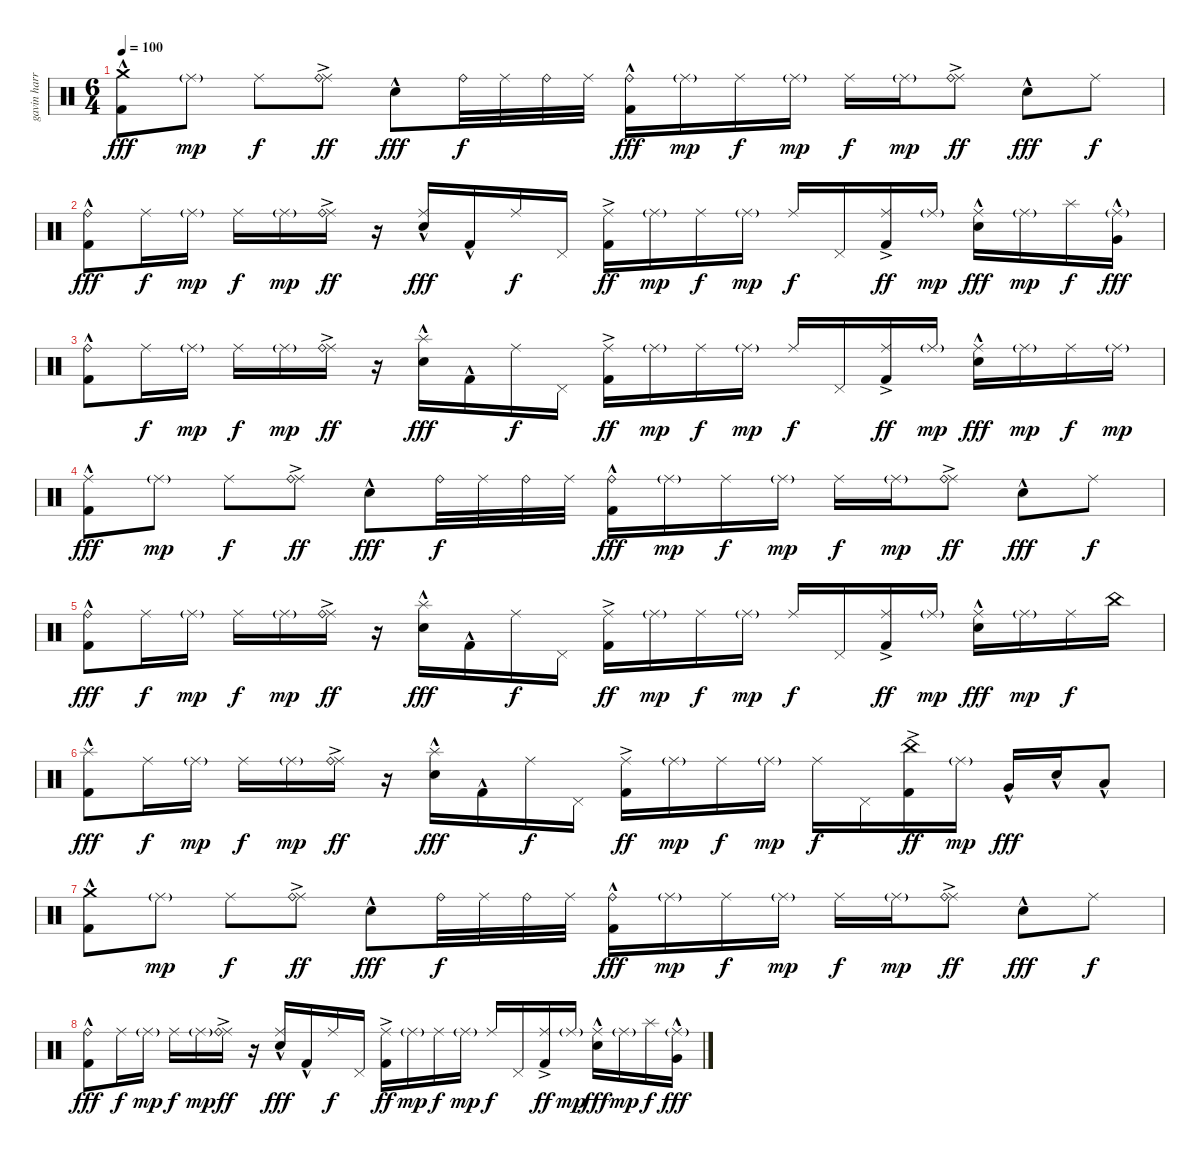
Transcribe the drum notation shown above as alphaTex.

\track ("gavin harrison" "gavin harr") {instrument percussion}
\staff {score}
\articulation defaults
\ts (6 4)
\tempo 100
\clef neutral
\ks c
("Crash medium (hit)" "Kick (hit) 2"{hac}).8{dy fff} "Ride (middle)"{g}.8{dy mp} "Ride (middle)".8{dy f} ("Ride (middle)"{ac} "Ride (bell)").8{dy ff} "Electric Snare (hit)"{hac}.8{dy fff} "Ride (bell)".32{dy f} "Ride (middle)".32 "Ride (bell)".32 "Ride (middle)".32 ("Ride (bell)" "Kick (hit) 2"{hac}).16{dy fff} "Ride (middle)"{g}.16{dy mp} "Ride (middle)".16{dy f} "Ride (middle)"{g}.16{dy mp} "Ride (middle)".16{dy f} "Ride (middle)"{g}.16{dy mp} ("Ride (middle)" "Ride (bell)"{ac}).8{dy ff} "Electric Snare (hit)"{hac}.8{dy fff} "Ride (middle)".8{dy f} |
("Ride (bell)" "Kick (hit) 2"{hac}).8{dy fff} "Ride (middle)".16{dy f} "Ride (middle)"{g}.16{dy mp} "Ride (middle)".16{dy f} "Ride (middle)"{g}.16{dy mp} ("Ride (middle)"{ac} "Ride (bell)").16{dy ff} r.16 ("Ride (middle)" "Electric Snare (hit)"{hac}).16{dy fff} "Kick (hit) 2"{hac}.16 "Ride (middle)".16{dy f} "Pedal Hi-Hat (hit)".16 ("Ride (middle)" "Kick (hit) 2"{ac}).16{dy ff} "Ride (middle)"{g}.16{dy mp} "Ride (middle)".16{dy f} "Ride (middle)"{g}.16{dy mp} "Ride (middle)".16{dy f} "Pedal Hi-Hat (hit)".16 ("Ride (middle)" "Kick (hit) 2"{ac}).16{dy ff} "Ride (middle)"{g}.16{dy mp} ("Ride (middle)" "Electric Snare (hit)"{hac}).16{dy fff} "Ride (middle)"{g}.16{dy mp} "Splash (hit)".16{dy f} ("Ride (middle)"{g} "Very Low Tom (hit)"{hac}).16{dy fff} |
("Ride (bell)" "Kick (hit) 2"{hac}).8 "Ride (middle)".16{dy f} "Ride (middle)"{g}.16{dy mp} "Ride (middle)".16{dy f} "Ride (middle)"{g}.16{dy mp} ("Ride (middle)"{ac} "Ride (bell)").16{dy ff} r.16 ("Splash (hit)" "Electric Snare (hit)"{hac}).16{dy fff} "Kick (hit) 2"{hac}.16 "Ride (middle)".16{dy f} "Pedal Hi-Hat (hit)".16 ("Ride (middle)" "Kick (hit) 2"{ac}).16{dy ff} "Ride (middle)"{g}.16{dy mp} "Ride (middle)".16{dy f} "Ride (middle)"{g}.16{dy mp} "Ride (middle)".16{dy f} "Pedal Hi-Hat (hit)".16 ("Ride (middle)" "Kick (hit) 2"{ac}).16{dy ff} "Ride (middle)"{g}.16{dy mp} ("Ride (middle)" "Electric Snare (hit)"{hac}).16{dy fff} "Ride (middle)"{g}.16{dy mp} "Ride (middle)".16{dy f} "Ride (middle)"{g}.16{dy mp} |
("Ride (middle)" "Kick (hit) 2"{hac}).8{dy fff} "Ride (middle)"{g}.8{dy mp} "Ride (middle)".8{dy f} ("Ride (middle)"{ac} "Ride (bell)").8{dy ff} "Electric Snare (hit)"{hac}.8{dy fff} "Ride (bell)".32{dy f} "Ride (middle)".32 "Ride (bell)".32 "Ride (middle)".32 ("Ride (bell)" "Kick (hit) 2"{hac}).16{dy fff} "Ride (middle)"{g}.16{dy mp} "Ride (middle)".16{dy f} "Ride (middle)"{g}.16{dy mp} "Ride (middle)".16{dy f} "Ride (middle)"{g}.16{dy mp} ("Ride (middle)" "Ride (bell)"{ac}).8{dy ff} "Electric Snare (hit)"{hac}.8{dy fff} "Ride (middle)".8{dy f} |
("Ride (bell)" "Kick (hit) 2"{hac}).8{dy fff} "Ride (middle)".16{dy f} "Ride (middle)"{g}.16{dy mp} "Ride (middle)".16{dy f} "Ride (middle)"{g}.16{dy mp} ("Ride (middle)"{ac} "Ride (bell)").16{dy ff} r.16 ("Splash (hit)" "Electric Snare (hit)"{hac}).16{dy fff} "Kick (hit) 2"{hac}.16 "Ride (middle)".16{dy f} "Pedal Hi-Hat (hit)".16 ("Ride (middle)" "Kick (hit) 2"{ac}).16{dy ff} "Ride (middle)"{g}.16{dy mp} "Ride (middle)".16{dy f} "Ride (middle)"{g}.16{dy mp} "Ride (middle)".16{dy f} "Pedal Hi-Hat (hit)".16 ("Ride (middle)" "Kick (hit) 2"{ac}).16{dy ff} "Ride (middle)"{g}.16{dy mp} ("Ride (middle)" "Electric Snare (hit)"{hac}).16{dy fff} "Ride (middle)"{g}.16{dy mp} "Ride (middle)".16{dy f} "China (hit)".16 |
("Splash (hit)" "Kick (hit) 2"{hac}).8{dy fff} "Ride (middle)".16{dy f} "Ride (middle)"{g}.16{dy mp} "Ride (middle)".16{dy f} "Ride (middle)"{g}.16{dy mp} ("Ride (middle)"{ac} "Ride (bell)").16{dy ff} r.16 ("Splash (hit)" "Electric Snare (hit)"{hac}).16{dy fff} "Kick (hit) 2"{hac}.16 "Ride (middle)".16{dy f} "Pedal Hi-Hat (hit)".16 ("Ride (middle)" "Kick (hit) 2"{ac}).16{dy ff} "Ride (middle)"{g}.16{dy mp} "Ride (middle)".16{dy f} "Ride (middle)"{g}.16{dy mp} "Ride (middle)".16{dy f} "Pedal Hi-Hat (hit)".16 ("China (hit)" "Kick (hit) 2"{ac}).16{dy ff} "Ride (middle)"{g}.16{dy mp} "Very Low Tom (hit)"{hac}.16{dy fff} "Electric Snare (hit)"{hac}.16 "Low Floor Tom (hit)"{hac}.8 |
("Crash medium (hit)" "Kick (hit) 2"{hac}).8 "Ride (middle)"{g}.8{dy mp} "Ride (middle)".8{dy f} ("Ride (middle)"{ac} "Ride (bell)").8{dy ff} "Electric Snare (hit)"{hac}.8{dy fff} "Ride (bell)".32{dy f} "Ride (middle)".32 "Ride (bell)".32 "Ride (middle)".32 ("Ride (bell)" "Kick (hit) 2"{hac}).16{dy fff} "Ride (middle)"{g}.16{dy mp} "Ride (middle)".16{dy f} "Ride (middle)"{g}.16{dy mp} "Ride (middle)".16{dy f} "Ride (middle)"{g}.16{dy mp} ("Ride (middle)" "Ride (bell)"{ac}).8{dy ff} "Electric Snare (hit)"{hac}.8{dy fff} "Ride (middle)".8{dy f} |
("Ride (bell)" "Kick (hit) 2"{hac}).8{dy fff} "Ride (middle)".16{dy f} "Ride (middle)"{g}.16{dy mp} "Ride (middle)".16{dy f} "Ride (middle)"{g}.16{dy mp} ("Ride (middle)"{ac} "Ride (bell)").16{dy ff} r.16 ("Ride (middle)" "Electric Snare (hit)"{hac}).16{dy fff} "Kick (hit) 2"{hac}.16 "Ride (middle)".16{dy f} "Pedal Hi-Hat (hit)".16 ("Ride (middle)" "Kick (hit) 2"{ac}).16{dy ff} "Ride (middle)"{g}.16{dy mp} "Ride (middle)".16{dy f} "Ride (middle)"{g}.16{dy mp} "Ride (middle)".16{dy f} "Pedal Hi-Hat (hit)".16 ("Ride (middle)" "Kick (hit) 2"{ac}).16{dy ff} "Ride (middle)"{g}.16{dy mp} ("Ride (middle)" "Electric Snare (hit)"{hac}).16{dy fff} "Ride (middle)"{g}.16{dy mp} "Splash (hit)".16{dy f} ("Ride (middle)"{g} "Very Low Tom (hit)"{hac}).16{dy fff}
